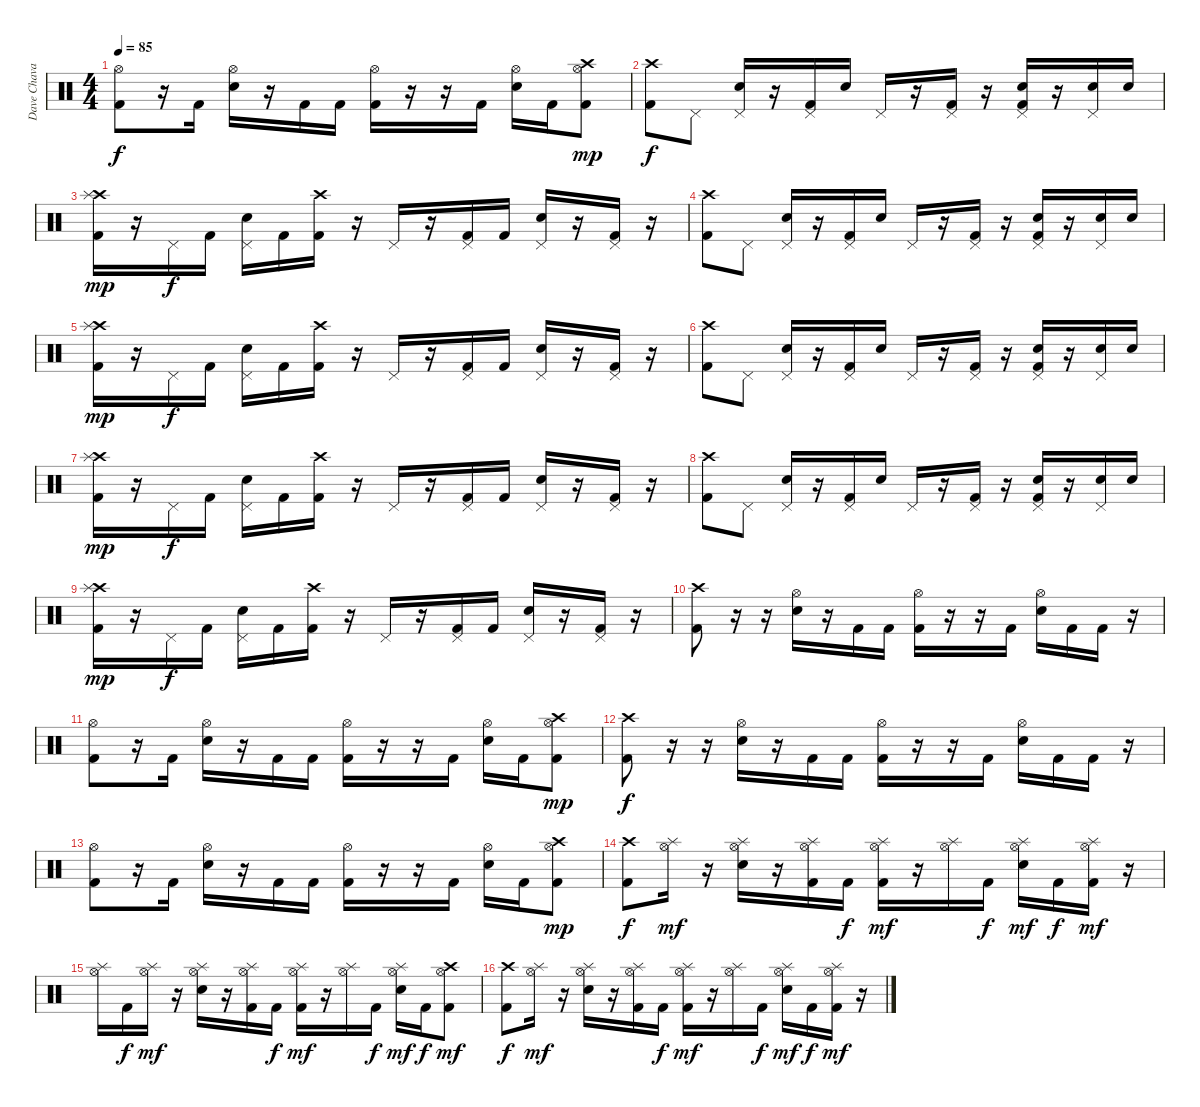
\track ("Dave Chavarri" "Dave Chava") {instrument percussion}
\staff {score}
\articulation defaults
\ts (4 4)
\tempo 85
\clef neutral
\ks c
("Hi-Hat (open)" "Kick (hit) 2").8{dy f} r.16 "Kick (hit) 2".16 ("Hi-Hat (open)" "Snare (hit) 2").16 r.16 "Kick (hit) 2".16 "Kick (hit) 2".16 ("Hi-Hat (open)" "Kick (hit) 2").16 r.16 r.16 "Kick (hit) 2".16 ("Hi-Hat (open)" "Snare (hit) 2").16 "Kick (hit) 2".16 ("Crash high (hit)" "Hi-Hat (open)" "Kick (hit) 2").8{dy mp} |
("Crash high (hit)" "Kick (hit) 2").8{dy f} "Pedal Hi-Hat (hit)".8 ("Pedal Hi-Hat (hit)" "Snare (hit) 2").16 r.16 ("Pedal Hi-Hat (hit)" "Kick (hit) 2").16 "Snare (hit) 2".16 "Pedal Hi-Hat (hit)".16 r.16 ("Pedal Hi-Hat (hit)" "Kick (hit) 2").16 r.16 ("Pedal Hi-Hat (hit)" "Snare (hit) 2" "Kick (hit) 2").16 r.16 ("Pedal Hi-Hat (hit)" "Snare (hit) 2").16 "Snare (hit) 2".16 |
("Crash high (hit)" "Splash (hit)" "Kick (hit) 2").16{dy mp} r.16 "Pedal Hi-Hat (hit)".16{dy f} "Kick (hit) 2".16 ("Pedal Hi-Hat (hit)" "Snare (hit) 2").16 "Kick (hit) 2".16 ("Crash high (hit)" "Kick (hit) 2").16 r.16 "Pedal Hi-Hat (hit)".16 r.16 ("Pedal Hi-Hat (hit)" "Kick (hit) 2").16 "Kick (hit) 2".16 ("Pedal Hi-Hat (hit)" "Snare (hit) 2").16 r.16 ("Pedal Hi-Hat (hit)" "Kick (hit) 2").16 r.16 |
("Crash high (hit)" "Kick (hit) 2").8 "Pedal Hi-Hat (hit)".8 ("Pedal Hi-Hat (hit)" "Snare (hit) 2").16 r.16 ("Pedal Hi-Hat (hit)" "Kick (hit) 2").16 "Snare (hit) 2".16 "Pedal Hi-Hat (hit)".16 r.16 ("Pedal Hi-Hat (hit)" "Kick (hit) 2").16 r.16 ("Pedal Hi-Hat (hit)" "Snare (hit) 2" "Kick (hit) 2").16 r.16 ("Pedal Hi-Hat (hit)" "Snare (hit) 2").16 "Snare (hit) 2".16 |
("Crash high (hit)" "Splash (hit)" "Kick (hit) 2").16{dy mp} r.16 "Pedal Hi-Hat (hit)".16{dy f} "Kick (hit) 2".16 ("Pedal Hi-Hat (hit)" "Snare (hit) 2").16 "Kick (hit) 2".16 ("Crash high (hit)" "Kick (hit) 2").16 r.16 "Pedal Hi-Hat (hit)".16 r.16 ("Pedal Hi-Hat (hit)" "Kick (hit) 2").16 "Kick (hit) 2".16 ("Pedal Hi-Hat (hit)" "Snare (hit) 2").16 r.16 ("Pedal Hi-Hat (hit)" "Kick (hit) 2").16 r.16 |
("Crash high (hit)" "Kick (hit) 2").8 "Pedal Hi-Hat (hit)".8 ("Pedal Hi-Hat (hit)" "Snare (hit) 2").16 r.16 ("Pedal Hi-Hat (hit)" "Kick (hit) 2").16 "Snare (hit) 2".16 "Pedal Hi-Hat (hit)".16 r.16 ("Pedal Hi-Hat (hit)" "Kick (hit) 2").16 r.16 ("Pedal Hi-Hat (hit)" "Snare (hit) 2" "Kick (hit) 2").16 r.16 ("Pedal Hi-Hat (hit)" "Snare (hit) 2").16 "Snare (hit) 2".16 |
("Crash high (hit)" "Splash (hit)" "Kick (hit) 2").16{dy mp} r.16 "Pedal Hi-Hat (hit)".16{dy f} "Kick (hit) 2".16 ("Pedal Hi-Hat (hit)" "Snare (hit) 2").16 "Kick (hit) 2".16 ("Crash high (hit)" "Kick (hit) 2").16 r.16 "Pedal Hi-Hat (hit)".16 r.16 ("Pedal Hi-Hat (hit)" "Kick (hit) 2").16 "Kick (hit) 2".16 ("Pedal Hi-Hat (hit)" "Snare (hit) 2").16 r.16 ("Pedal Hi-Hat (hit)" "Kick (hit) 2").16 r.16 |
("Crash high (hit)" "Kick (hit) 2").8 "Pedal Hi-Hat (hit)".8 ("Pedal Hi-Hat (hit)" "Snare (hit) 2").16 r.16 ("Pedal Hi-Hat (hit)" "Kick (hit) 2").16 "Snare (hit) 2".16 "Pedal Hi-Hat (hit)".16 r.16 ("Pedal Hi-Hat (hit)" "Kick (hit) 2").16 r.16 ("Pedal Hi-Hat (hit)" "Snare (hit) 2" "Kick (hit) 2").16 r.16 ("Pedal Hi-Hat (hit)" "Snare (hit) 2").16 "Snare (hit) 2".16 |
("Crash high (hit)" "Splash (hit)" "Kick (hit) 2").16{dy mp} r.16 "Pedal Hi-Hat (hit)".16{dy f} "Kick (hit) 2".16 ("Pedal Hi-Hat (hit)" "Snare (hit) 2").16 "Kick (hit) 2".16 ("Crash high (hit)" "Kick (hit) 2").16 r.16 "Pedal Hi-Hat (hit)".16 r.16 ("Pedal Hi-Hat (hit)" "Kick (hit) 2").16 "Kick (hit) 2".16 ("Pedal Hi-Hat (hit)" "Snare (hit) 2").16 r.16 ("Pedal Hi-Hat (hit)" "Kick (hit) 2").16 r.16 |
("Crash high (hit)" "Kick (hit) 2").8 r.16 r.16 ("Hi-Hat (open)" "Snare (hit) 2").16 r.16 "Kick (hit) 2".16 "Kick (hit) 2".16 ("Hi-Hat (open)" "Kick (hit) 2").16 r.16 r.16 "Kick (hit) 2".16 ("Hi-Hat (open)" "Snare (hit) 2").16 "Kick (hit) 2".16 "Kick (hit) 2".16 r.16 |
("Hi-Hat (open)" "Kick (hit) 2").8 r.16 "Kick (hit) 2".16 ("Hi-Hat (open)" "Snare (hit) 2").16 r.16 "Kick (hit) 2".16 "Kick (hit) 2".16 ("Hi-Hat (open)" "Kick (hit) 2").16 r.16 r.16 "Kick (hit) 2".16 ("Hi-Hat (open)" "Snare (hit) 2").16 "Kick (hit) 2".16 ("Crash high (hit)" "Hi-Hat (open)" "Kick (hit) 2").8{dy mp} |
("Crash high (hit)" "Kick (hit) 2").8{dy f} r.16 r.16 ("Hi-Hat (open)" "Snare (hit) 2").16 r.16 "Kick (hit) 2".16 "Kick (hit) 2".16 ("Hi-Hat (open)" "Kick (hit) 2").16 r.16 r.16 "Kick (hit) 2".16 ("Hi-Hat (open)" "Snare (hit) 2").16 "Kick (hit) 2".16 "Kick (hit) 2".16 r.16 |
("Hi-Hat (open)" "Kick (hit) 2").8 r.16 "Kick (hit) 2".16 ("Hi-Hat (open)" "Snare (hit) 2").16 r.16 "Kick (hit) 2".16 "Kick (hit) 2".16 ("Hi-Hat (open)" "Kick (hit) 2").16 r.16 r.16 "Kick (hit) 2".16 ("Hi-Hat (open)" "Snare (hit) 2").16 "Kick (hit) 2".16 ("Crash high (hit)" "Hi-Hat (open)" "Kick (hit) 2").8{dy mp} |
("Crash high (hit)" "Kick (hit) 2").8{dy f} ("Hi-Hat (open)" "Splash (hit)").16{dy mf} r.16 ("Hi-Hat (open)" "Splash (hit)" "Snare (hit) 2").16 r.16 ("Hi-Hat (open)" "Splash (hit)" "Kick (hit) 2").16 "Kick (hit) 2".16{dy f} ("Hi-Hat (open)" "Splash (hit)" "Kick (hit) 2").16{dy mf} r.16 ("Hi-Hat (open)" "Splash (hit)").16 "Kick (hit) 2".16{dy f} ("Hi-Hat (open)" "Splash (hit)" "Snare (hit) 2").16{dy mf} "Kick (hit) 2".16{dy f} ("Hi-Hat (open)" "Splash (hit)" "Kick (hit) 2").16{dy mf} r.16 |
("Hi-Hat (open)" "Splash (hit)").16 "Kick (hit) 2".16{dy f} ("Hi-Hat (open)" "Splash (hit)").16{dy mf} r.16 ("Hi-Hat (open)" "Splash (hit)" "Snare (hit) 2").16 r.16 ("Hi-Hat (open)" "Splash (hit)" "Kick (hit) 2").16 "Kick (hit) 2".16{dy f} ("Hi-Hat (open)" "Splash (hit)" "Kick (hit) 2").16{dy mf} r.16 ("Hi-Hat (open)" "Splash (hit)").16 "Kick (hit) 2".16{dy f} ("Hi-Hat (open)" "Splash (hit)" "Snare (hit) 2").16{dy mf} "Kick (hit) 2".16{dy f} ("Hi-Hat (open)" "Crash high (hit)" "Kick (hit) 2").8{dy mf} |
("Crash high (hit)" "Kick (hit) 2").8{dy f} ("Hi-Hat (open)" "Splash (hit)").16{dy mf} r.16 ("Hi-Hat (open)" "Splash (hit)" "Snare (hit) 2").16 r.16 ("Hi-Hat (open)" "Splash (hit)" "Kick (hit) 2").16 "Kick (hit) 2".16{dy f} ("Hi-Hat (open)" "Splash (hit)" "Kick (hit) 2").16{dy mf} r.16 ("Hi-Hat (open)" "Splash (hit)").16 "Kick (hit) 2".16{dy f} ("Hi-Hat (open)" "Splash (hit)" "Snare (hit) 2").16{dy mf} "Kick (hit) 2".16{dy f} ("Hi-Hat (open)" "Splash (hit)" "Kick (hit) 2").16{dy mf} r.16
